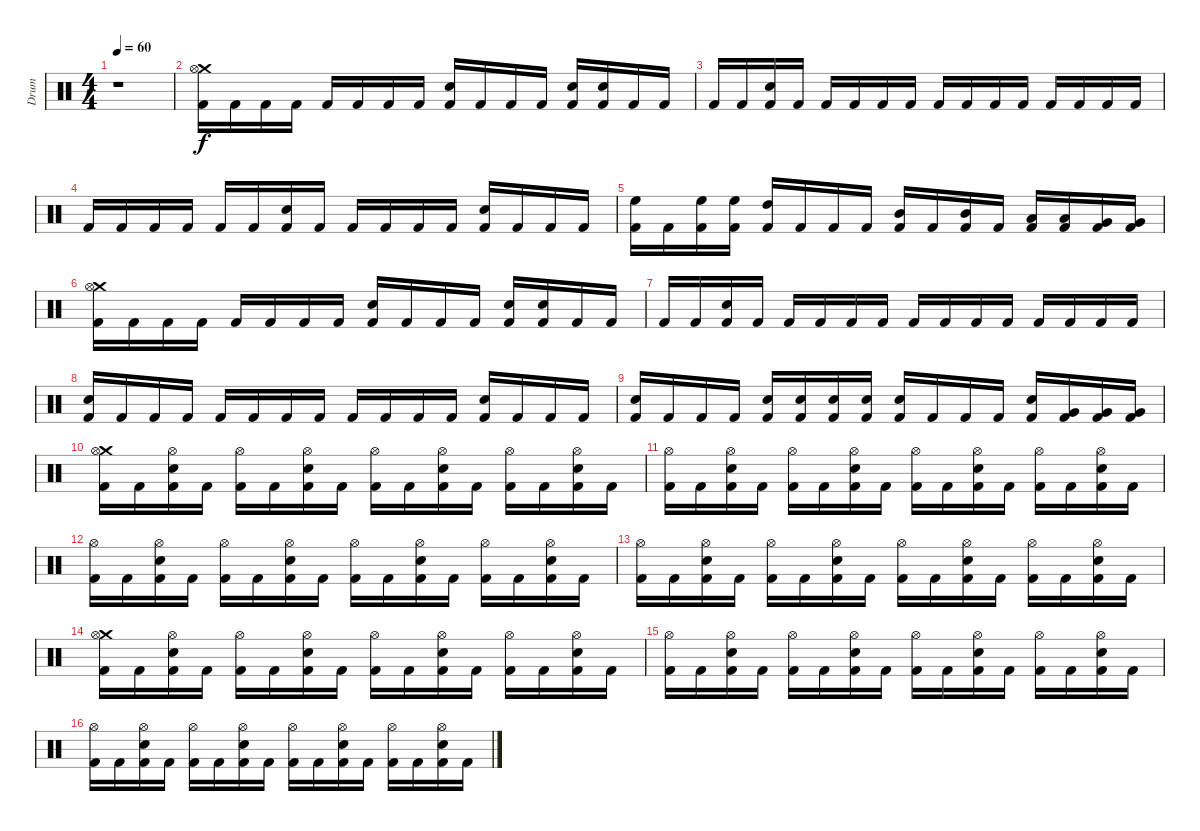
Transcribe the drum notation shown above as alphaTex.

\track ("Drum" "Drum") {instrument percussion}
\staff {score}
\articulation defaults
\ts (4 4)
\tempo 60
\clef neutral
\ks c
r.1{dy f} |
("Crash medium (hit)" "Hi-Hat (open)" "Kick (hit) 2").16 "Kick (hit) 2".16 "Kick (hit) 2".16 "Kick (hit) 2".16 "Kick (hit) 2".16 "Kick (hit) 2".16 "Kick (hit) 2".16 "Kick (hit) 2".16 ("Electric Snare (hit)" "Kick (hit) 2").16 "Kick (hit) 2".16 "Kick (hit) 2".16 "Kick (hit) 2".16 ("Electric Snare (hit)" "Kick (hit) 2").16 ("Electric Snare (hit)" "Kick (hit) 2").16 "Kick (hit) 2".16 "Kick (hit) 2".16 |
"Kick (hit) 2".16 "Kick (hit) 2".16 ("Electric Snare (hit)" "Kick (hit) 2").16 "Kick (hit) 2".16 "Kick (hit) 2".16 "Kick (hit) 2".16 "Kick (hit) 2".16 "Kick (hit) 2".16 "Kick (hit) 2".16 "Kick (hit) 2".16 "Kick (hit) 2".16 "Kick (hit) 2".16 "Kick (hit) 2".16 "Kick (hit) 2".16 "Kick (hit) 2".16 "Kick (hit) 2".16 |
"Kick (hit) 2".16 "Kick (hit) 2".16 "Kick (hit) 2".16 "Kick (hit) 2".16 "Kick (hit) 2".16 "Kick (hit) 2".16 ("Electric Snare (hit)" "Kick (hit) 2").16 "Kick (hit) 2".16 "Kick (hit) 2".16 "Kick (hit) 2".16 "Kick (hit) 2".16 "Kick (hit) 2".16 ("Electric Snare (hit)" "Kick (hit) 2").16 "Kick (hit) 2".16 "Kick (hit) 2".16 "Kick (hit) 2".16 |
("High Floor Tom (hit)" "Kick (hit) 2").16 "Kick (hit) 2".16 ("High Floor Tom (hit)" "Kick (hit) 2").16 ("High Floor Tom (hit)" "Kick (hit) 2").16 ("High Tom (hit)" "Kick (hit) 2").16 "Kick (hit) 2".16 "Kick (hit) 2".16 "Kick (hit) 2".16 ("Mid Tom (hit)" "Kick (hit) 2").16 "Kick (hit) 2".16 ("Mid Tom (hit)" "Kick (hit) 2").16 "Kick (hit) 2".16 ("Low Tom (hit)" "Kick (hit) 2").16 ("Low Tom (hit)" "Kick (hit) 2").16 ("Very Low Tom (hit)" "Kick (hit) 2").16 ("Very Low Tom (hit)" "Kick (hit) 2").16 |
("Crash medium (hit)" "Hi-Hat (open)" "Kick (hit) 2").16 "Kick (hit) 2".16 "Kick (hit) 2".16 "Kick (hit) 2".16 "Kick (hit) 2".16 "Kick (hit) 2".16 "Kick (hit) 2".16 "Kick (hit) 2".16 ("Electric Snare (hit)" "Kick (hit) 2").16 "Kick (hit) 2".16 "Kick (hit) 2".16 "Kick (hit) 2".16 ("Electric Snare (hit)" "Kick (hit) 2").16 ("Electric Snare (hit)" "Kick (hit) 2").16 "Kick (hit) 2".16 "Kick (hit) 2".16 |
"Kick (hit) 2".16 "Kick (hit) 2".16 ("Electric Snare (hit)" "Kick (hit) 2").16 "Kick (hit) 2".16 "Kick (hit) 2".16 "Kick (hit) 2".16 "Kick (hit) 2".16 "Kick (hit) 2".16 "Kick (hit) 2".16 "Kick (hit) 2".16 "Kick (hit) 2".16 "Kick (hit) 2".16 "Kick (hit) 2".16 "Kick (hit) 2".16 "Kick (hit) 2".16 "Kick (hit) 2".16 |
("Electric Snare (hit)" "Kick (hit) 2").16 "Kick (hit) 2".16 "Kick (hit) 2".16 "Kick (hit) 2".16 "Kick (hit) 2".16 "Kick (hit) 2".16 "Kick (hit) 2".16 "Kick (hit) 2".16 "Kick (hit) 2".16 "Kick (hit) 2".16 "Kick (hit) 2".16 "Kick (hit) 2".16 ("Electric Snare (hit)" "Kick (hit) 2").16 "Kick (hit) 2".16 "Kick (hit) 2".16 "Kick (hit) 2".16 |
("Electric Snare (hit)" "Kick (hit) 2").16 "Kick (hit) 2".16 "Kick (hit) 2".16 "Kick (hit) 2".16 ("Electric Snare (hit)" "Kick (hit) 2").16 ("Electric Snare (hit)" "Kick (hit) 2").16 ("Electric Snare (hit)" "Kick (hit) 2").16 ("Electric Snare (hit)" "Kick (hit) 2").16 ("Electric Snare (hit)" "Kick (hit) 2").16 "Kick (hit) 2".16 "Kick (hit) 2".16 "Kick (hit) 2".16 ("Electric Snare (hit)" "Kick (hit) 2").16 ("Very Low Tom (hit)" "Kick (hit) 2").16 ("Very Low Tom (hit)" "Kick (hit) 2").16 ("Very Low Tom (hit)" "Kick (hit) 2").16 |
("Crash medium (hit)" "Hi-Hat (open)" "Kick (hit) 2").16 "Kick (hit) 2".16 ("Electric Snare (hit)" "Hi-Hat (open)" "Kick (hit) 2").16 "Kick (hit) 2".16 ("Hi-Hat (open)" "Kick (hit) 2").16 "Kick (hit) 2".16 ("Electric Snare (hit)" "Hi-Hat (open)" "Kick (hit) 2").16 "Kick (hit) 2".16 ("Hi-Hat (open)" "Kick (hit) 2").16 "Kick (hit) 2".16 ("Electric Snare (hit)" "Hi-Hat (open)" "Kick (hit) 2").16 "Kick (hit) 2".16 ("Hi-Hat (open)" "Kick (hit) 2").16 "Kick (hit) 2".16 ("Electric Snare (hit)" "Hi-Hat (open)" "Kick (hit) 2").16 "Kick (hit) 2".16 |
("Hi-Hat (open)" "Kick (hit) 2").16 "Kick (hit) 2".16 ("Electric Snare (hit)" "Hi-Hat (open)" "Kick (hit) 2").16 "Kick (hit) 2".16 ("Hi-Hat (open)" "Kick (hit) 2").16 "Kick (hit) 2".16 ("Electric Snare (hit)" "Hi-Hat (open)" "Kick (hit) 2").16 "Kick (hit) 2".16 ("Hi-Hat (open)" "Kick (hit) 2").16 "Kick (hit) 2".16 ("Electric Snare (hit)" "Hi-Hat (open)" "Kick (hit) 2").16 "Kick (hit) 2".16 ("Hi-Hat (open)" "Kick (hit) 2").16 "Kick (hit) 2".16 ("Electric Snare (hit)" "Hi-Hat (open)" "Kick (hit) 2").16 "Kick (hit) 2".16 |
("Hi-Hat (open)" "Kick (hit) 2").16 "Kick (hit) 2".16 ("Electric Snare (hit)" "Hi-Hat (open)" "Kick (hit) 2").16 "Kick (hit) 2".16 ("Hi-Hat (open)" "Kick (hit) 2").16 "Kick (hit) 2".16 ("Electric Snare (hit)" "Hi-Hat (open)" "Kick (hit) 2").16 "Kick (hit) 2".16 ("Hi-Hat (open)" "Kick (hit) 2").16 "Kick (hit) 2".16 ("Electric Snare (hit)" "Hi-Hat (open)" "Kick (hit) 2").16 "Kick (hit) 2".16 ("Hi-Hat (open)" "Kick (hit) 2").16 "Kick (hit) 2".16 ("Electric Snare (hit)" "Hi-Hat (open)" "Kick (hit) 2").16 "Kick (hit) 2".16 |
("Hi-Hat (open)" "Kick (hit) 2").16 "Kick (hit) 2".16 ("Electric Snare (hit)" "Hi-Hat (open)" "Kick (hit) 2").16 "Kick (hit) 2".16 ("Hi-Hat (open)" "Kick (hit) 2").16 "Kick (hit) 2".16 ("Electric Snare (hit)" "Hi-Hat (open)" "Kick (hit) 2").16 "Kick (hit) 2".16 ("Hi-Hat (open)" "Kick (hit) 2").16 "Kick (hit) 2".16 ("Electric Snare (hit)" "Hi-Hat (open)" "Kick (hit) 2").16 "Kick (hit) 2".16 ("Hi-Hat (open)" "Kick (hit) 2").16 "Kick (hit) 2".16 ("Electric Snare (hit)" "Hi-Hat (open)" "Kick (hit) 2").16 "Kick (hit) 2".16 |
("Crash medium (hit)" "Hi-Hat (open)" "Kick (hit) 2").16 "Kick (hit) 2".16 ("Electric Snare (hit)" "Hi-Hat (open)" "Kick (hit) 2").16 "Kick (hit) 2".16 ("Hi-Hat (open)" "Kick (hit) 2").16 "Kick (hit) 2".16 ("Electric Snare (hit)" "Hi-Hat (open)" "Kick (hit) 2").16 "Kick (hit) 2".16 ("Hi-Hat (open)" "Kick (hit) 2").16 "Kick (hit) 2".16 ("Electric Snare (hit)" "Hi-Hat (open)" "Kick (hit) 2").16 "Kick (hit) 2".16 ("Hi-Hat (open)" "Kick (hit) 2").16 "Kick (hit) 2".16 ("Electric Snare (hit)" "Hi-Hat (open)" "Kick (hit) 2").16 "Kick (hit) 2".16 |
("Hi-Hat (open)" "Kick (hit) 2").16 "Kick (hit) 2".16 ("Electric Snare (hit)" "Hi-Hat (open)" "Kick (hit) 2").16 "Kick (hit) 2".16 ("Hi-Hat (open)" "Kick (hit) 2").16 "Kick (hit) 2".16 ("Electric Snare (hit)" "Hi-Hat (open)" "Kick (hit) 2").16 "Kick (hit) 2".16 ("Hi-Hat (open)" "Kick (hit) 2").16 "Kick (hit) 2".16 ("Electric Snare (hit)" "Hi-Hat (open)" "Kick (hit) 2").16 "Kick (hit) 2".16 ("Hi-Hat (open)" "Kick (hit) 2").16 "Kick (hit) 2".16 ("Electric Snare (hit)" "Hi-Hat (open)" "Kick (hit) 2").16 "Kick (hit) 2".16 |
("Hi-Hat (open)" "Kick (hit) 2").16 "Kick (hit) 2".16 ("Electric Snare (hit)" "Hi-Hat (open)" "Kick (hit) 2").16 "Kick (hit) 2".16 ("Hi-Hat (open)" "Kick (hit) 2").16 "Kick (hit) 2".16 ("Electric Snare (hit)" "Hi-Hat (open)" "Kick (hit) 2").16 "Kick (hit) 2".16 ("Hi-Hat (open)" "Kick (hit) 2").16 "Kick (hit) 2".16 ("Electric Snare (hit)" "Hi-Hat (open)" "Kick (hit) 2").16 "Kick (hit) 2".16 ("Hi-Hat (open)" "Kick (hit) 2").16 "Kick (hit) 2".16 ("Electric Snare (hit)" "Hi-Hat (open)" "Kick (hit) 2").16 "Kick (hit) 2".16
